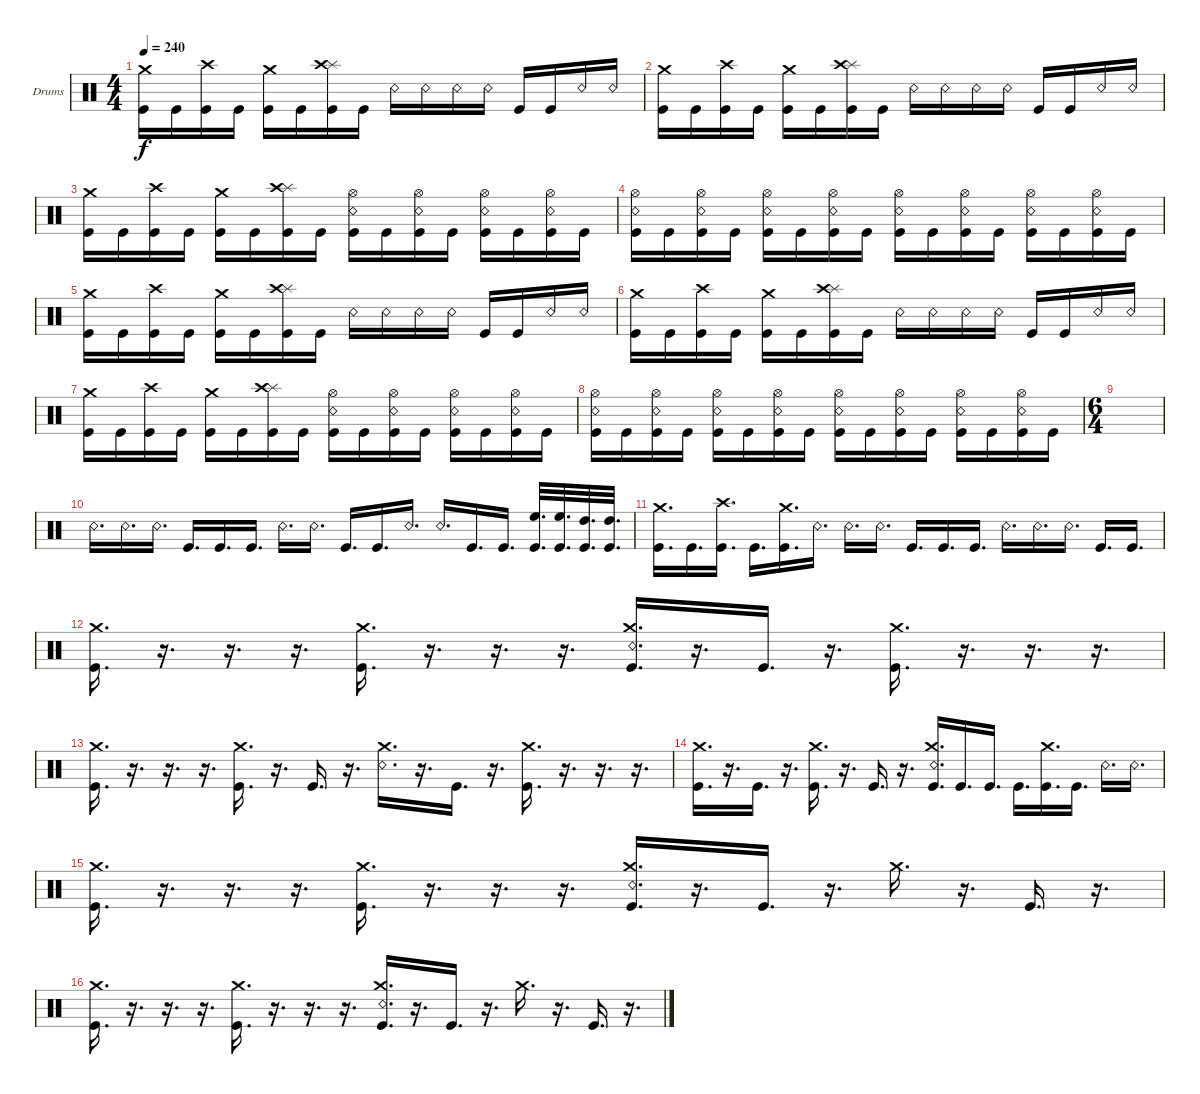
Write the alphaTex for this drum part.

\bracketExtendMode groupsimilarinstruments
\firstSystemTrackNameOrientation horizontal
\otherSystemsTrackNameOrientation horizontal
\track ("Drumkit" "Drums") {instrument percussion}
\staff {score}
\articulation defaults
\ts (4 4)
\tempo 240
\clef neutral
\ks c
("Kick (hit)" "Crash medium (hit)").16{dy f} "Kick (hit)".16 ("Kick (hit)" "Crash high (hit)").16 "Kick (hit)".16 ("Kick (hit)" "Crash medium (hit)").16 "Kick (hit)".16 ("Kick (hit)" "Splash (hit)" "Crash high (hit)").16 "Kick (hit)".16 "Snare (rim shot)".16 "Snare (rim shot)".16 "Snare (rim shot)".16 "Snare (rim shot)".16 "Kick (hit)".16 "Kick (hit)".16 "Snare (rim shot)".16 "Snare (rim shot)".16 |
("Kick (hit)" "Crash medium (hit)").16 "Kick (hit)".16 ("Kick (hit)" "Crash high (hit)").16 "Kick (hit)".16 ("Kick (hit)" "Crash medium (hit)").16 "Kick (hit)".16 ("Kick (hit)" "Splash (hit)" "Crash high (hit)").16 "Kick (hit)".16 "Snare (rim shot)".16 "Snare (rim shot)".16 "Snare (rim shot)".16 "Snare (rim shot)".16 "Kick (hit)".16 "Kick (hit)".16 "Snare (rim shot)".16 "Snare (rim shot)".16 |
("Kick (hit)" "Crash medium (hit)").16 "Kick (hit)".16 ("Kick (hit)" "Crash high (hit)").16 "Kick (hit)".16 ("Kick (hit)" "Crash medium (hit)").16 "Kick (hit)".16 ("Kick (hit)" "Splash (hit)" "Crash high (hit)").16 "Kick (hit)".16 ("Snare (rim shot)" "Hi-Hat (open)" "Kick (hit)").16 "Kick (hit)".16 ("Snare (rim shot)" "Hi-Hat (open)" "Kick (hit)").16 "Kick (hit)".16 ("Snare (rim shot)" "Hi-Hat (open)" "Kick (hit)").16 "Kick (hit)".16 ("Snare (rim shot)" "Hi-Hat (open)" "Kick (hit)").16 "Kick (hit)".16 |
("Snare (rim shot)" "Hi-Hat (open)" "Kick (hit)").16 "Kick (hit)".16 ("Snare (rim shot)" "Hi-Hat (open)" "Kick (hit)").16 "Kick (hit)".16 ("Snare (rim shot)" "Hi-Hat (open)" "Kick (hit)").16 "Kick (hit)".16 ("Snare (rim shot)" "Hi-Hat (open)" "Kick (hit)").16 "Kick (hit)".16 ("Snare (rim shot)" "Hi-Hat (open)" "Kick (hit)").16 "Kick (hit)".16 ("Snare (rim shot)" "Hi-Hat (open)" "Kick (hit)").16 "Kick (hit)".16 ("Snare (rim shot)" "Hi-Hat (open)" "Kick (hit)").16 "Kick (hit)".16 ("Snare (rim shot)" "Hi-Hat (open)" "Kick (hit)").16 "Kick (hit)".16 |
("Kick (hit)" "Crash medium (hit)").16 "Kick (hit)".16 ("Kick (hit)" "Crash high (hit)").16 "Kick (hit)".16 ("Kick (hit)" "Crash medium (hit)").16 "Kick (hit)".16 ("Kick (hit)" "Splash (hit)" "Crash high (hit)").16 "Kick (hit)".16 "Snare (rim shot)".16 "Snare (rim shot)".16 "Snare (rim shot)".16 "Snare (rim shot)".16 "Kick (hit)".16 "Kick (hit)".16 "Snare (rim shot)".16 "Snare (rim shot)".16 |
("Kick (hit)" "Crash medium (hit)").16 "Kick (hit)".16 ("Kick (hit)" "Crash high (hit)").16 "Kick (hit)".16 ("Kick (hit)" "Crash medium (hit)").16 "Kick (hit)".16 ("Kick (hit)" "Splash (hit)" "Crash high (hit)").16 "Kick (hit)".16 "Snare (rim shot)".16 "Snare (rim shot)".16 "Snare (rim shot)".16 "Snare (rim shot)".16 "Kick (hit)".16 "Kick (hit)".16 "Snare (rim shot)".16 "Snare (rim shot)".16 |
("Kick (hit)" "Crash medium (hit)").16 "Kick (hit)".16 ("Kick (hit)" "Crash high (hit)").16 "Kick (hit)".16 ("Kick (hit)" "Crash medium (hit)").16 "Kick (hit)".16 ("Kick (hit)" "Splash (hit)" "Crash high (hit)").16 "Kick (hit)".16 ("Snare (rim shot)" "Hi-Hat (open)" "Kick (hit)").16 "Kick (hit)".16 ("Snare (rim shot)" "Hi-Hat (open)" "Kick (hit)").16 "Kick (hit)".16 ("Snare (rim shot)" "Hi-Hat (open)" "Kick (hit)").16 "Kick (hit)".16 ("Snare (rim shot)" "Hi-Hat (open)" "Kick (hit)").16 "Kick (hit)".16 |
("Snare (rim shot)" "Hi-Hat (open)" "Kick (hit)").16 "Kick (hit)".16 ("Snare (rim shot)" "Hi-Hat (open)" "Kick (hit)").16 "Kick (hit)".16 ("Snare (rim shot)" "Hi-Hat (open)" "Kick (hit)").16 "Kick (hit)".16 ("Snare (rim shot)" "Hi-Hat (open)" "Kick (hit)").16 "Kick (hit)".16 ("Snare (rim shot)" "Hi-Hat (open)" "Kick (hit)").16 "Kick (hit)".16 ("Snare (rim shot)" "Hi-Hat (open)" "Kick (hit)").16 "Kick (hit)".16 ("Snare (rim shot)" "Hi-Hat (open)" "Kick (hit)").16 "Kick (hit)".16 ("Snare (rim shot)" "Hi-Hat (open)" "Kick (hit)").16 "Kick (hit)".16 |
\ts (6 4)
|
"Snare (rim shot)".16{d} "Snare (rim shot)".16{d} "Snare (rim shot)".16{d} "Kick (hit)".16{d} "Kick (hit)".16{d} "Kick (hit)".16{d} "Snare (rim shot)".16{d} "Snare (rim shot)".16{d} "Kick (hit)".16{d} "Kick (hit)".16{d} "Snare (rim shot)".16{d} "Snare (rim shot)".16{d} "Kick (hit)".16{d} "Kick (hit)".16{d} ("High Floor Tom (hit)" "Kick (hit)").32{d} ("High Floor Tom (hit)" "Kick (hit)").32{d} ("High Tom (hit)" "Kick (hit)").32{d} ("High Tom (hit)" "Kick (hit)").32{d} |
("Crash medium (hit)" "Kick (hit)").16{d} "Kick (hit)".16{d} ("Crash high (hit)" "Kick (hit)").16{d} "Kick (hit)".16{d} ("Crash medium (hit)" "Kick (hit)").16{d} "Snare (rim shot)".16{d} "Snare (rim shot)".16{d} "Snare (rim shot)".16{d} "Kick (hit)".16{d} "Kick (hit)".16{d} "Kick (hit)".16{d} "Snare (rim shot)".16{d} "Snare (rim shot)".16{d} "Snare (rim shot)".16{d} "Kick (hit)".16{d} "Kick (hit)".16{d} |
("Crash medium (hit)" "Kick (hit)").16{d} r.16{d} r.16{d} r.16{d} ("Kick (hit)" "Crash medium (hit)").16{d} r.16{d} r.16{d} r.16{d} ("Crash medium (hit)" "Kick (hit)" "Snare (rim shot)").16{d} r.16{d} "Kick (hit)".16{d} r.16{d} ("Kick (hit)" "Crash medium (hit)").16{d} r.16{d} r.16{d} r.16{d} |
("Crash medium (hit)" "Kick (hit)").16{d} r.16{d} r.16{d} r.16{d} ("Kick (hit)" "Crash medium (hit)").16{d} r.16{d} "Kick (hit)".16{d} r.16{d} ("Crash medium (hit)" "Snare (rim shot)").16{d} r.16{d} "Kick (hit)".16{d} r.16{d} ("Kick (hit)" "Crash medium (hit)").16{d} r.16{d} r.16{d} r.16{d} |
("Crash medium (hit)" "Kick (hit)").16{d} r.16{d} "Kick (hit)".16{d} r.16{d} ("Kick (hit)" "Crash medium (hit)").16{d} r.16{d} "Kick (hit)".16{d} r.16{d} ("Crash medium (hit)" "Kick (hit)" "Snare (rim shot)").16{d} "Kick (hit)".16{d} "Kick (hit)".16{d} "Kick (hit)".16{d} ("Kick (hit)" "Crash medium (hit)").16{d} "Kick (hit)".16{d} "Snare (rim shot)".16{d} "Snare (rim shot)".16{d} |
("Crash medium (hit)" "Kick (hit)").16{d} r.16{d} r.16{d} r.16{d} ("Kick (hit)" "Crash medium (hit)").16{d} r.16{d} r.16{d} r.16{d} ("Crash medium (hit)" "Kick (hit)" "Snare (rim shot)").16{d} r.16{d} "Kick (hit)".16{d} r.16{d} "Crash medium (hit)".16{d} r.16{d} "Kick (hit)".16{d} r.16{d} |
("Crash medium (hit)" "Kick (hit)").16{d} r.16{d} r.16{d} r.16{d} ("Kick (hit)" "Crash medium (hit)").16{d} r.16{d} r.16{d} r.16{d} ("Crash medium (hit)" "Kick (hit)" "Snare (rim shot)").16{d} r.16{d} "Kick (hit)".16{d} r.16{d} "Crash medium (hit)".16{d} r.16{d} "Kick (hit)".16{d} r.16{d}
